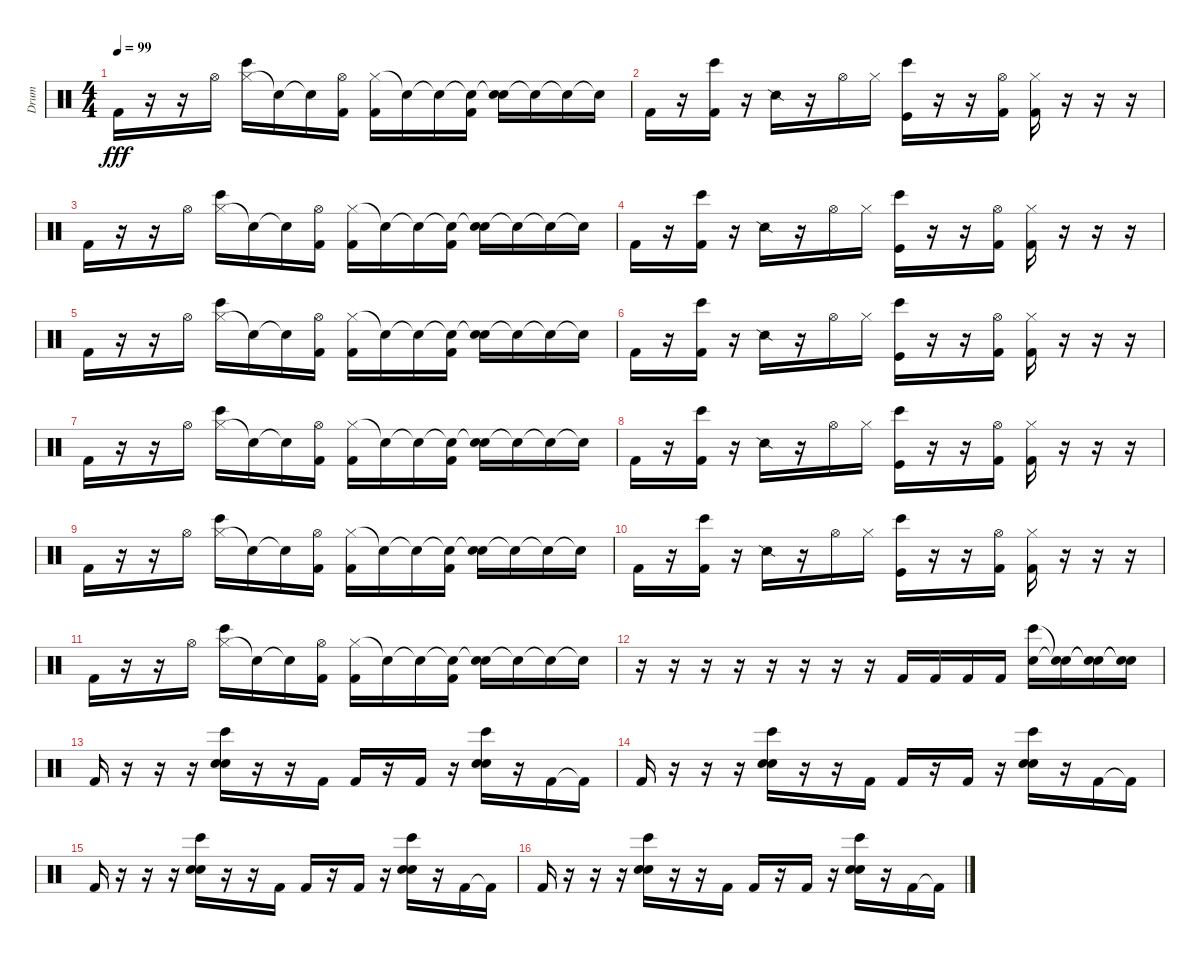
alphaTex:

\track ("Drum" "Drum") {instrument percussion}
\staff {score}
\articulation defaults
\ts (4 4)
\tempo 99
\clef neutral
\ks c "Kick (hit) 2".16{dy fff}
r.16 r.16 "Hi-Hat (open)".16 ("Hi-Hat (closed)" "Bongo High (hit)").16 "Snare (hit)"{t}.16 "Snare (hit)"{t}.16 ("Hi-Hat (open)" "Kick (hit) 2").16 ("Hi-Hat (closed)" "Kick (hit) 2").16 "Snare (hit)"{t}.16 "Snare (hit)"{t}.16 ("Snare (hit)"{t} "Kick (hit) 2").16 ("Snare (hit)"{t} "Hand Clap (hit)").16 "Snare (hit)"{t}.16 "Snare (hit)"{t}.16 "Snare (hit)"{t}.16 |
"Kick (hit) 2".16 r.16 ("Bongo High (hit)" "Kick (hit) 2").16 r.16 "Snare (side stick) 2".16 r.16 "Hi-Hat (open)".16 "Hi-Hat (closed)".16 ("Bongo High (hit)" "Kick (hit)").16 r.16 r.16 ("Hi-Hat (open)" "Kick (hit) 2").16 ("Hi-Hat (closed)" "Kick (hit) 2").16 r.16 r.16 r.16 |
"Kick (hit) 2".16 r.16 r.16 "Hi-Hat (open)".16 ("Hi-Hat (closed)" "Bongo High (hit)").16 "Snare (hit)"{t}.16 "Snare (hit)"{t}.16 ("Hi-Hat (open)" "Kick (hit) 2").16 ("Hi-Hat (closed)" "Kick (hit) 2").16 "Snare (hit)"{t}.16 "Snare (hit)"{t}.16 ("Snare (hit)"{t} "Kick (hit) 2").16 ("Snare (hit)"{t} "Hand Clap (hit)").16 "Snare (hit)"{t}.16 "Snare (hit)"{t}.16 "Snare (hit)"{t}.16 |
"Kick (hit) 2".16 r.16 ("Bongo High (hit)" "Kick (hit) 2").16 r.16 "Snare (side stick) 2".16 r.16 "Hi-Hat (open)".16 "Hi-Hat (closed)".16 ("Bongo High (hit)" "Kick (hit)").16 r.16 r.16 ("Hi-Hat (open)" "Kick (hit) 2").16 ("Hi-Hat (closed)" "Kick (hit) 2").16 r.16 r.16 r.16 |
"Kick (hit) 2".16 r.16 r.16 "Hi-Hat (open)".16 ("Hi-Hat (closed)" "Bongo High (hit)").16 "Snare (hit)"{t}.16 "Snare (hit)"{t}.16 ("Hi-Hat (open)" "Kick (hit) 2").16 ("Hi-Hat (closed)" "Kick (hit) 2").16 "Snare (hit)"{t}.16 "Snare (hit)"{t}.16 ("Snare (hit)"{t} "Kick (hit) 2").16 ("Snare (hit)"{t} "Hand Clap (hit)").16 "Snare (hit)"{t}.16 "Snare (hit)"{t}.16 "Snare (hit)"{t}.16 |
"Kick (hit) 2".16 r.16 ("Bongo High (hit)" "Kick (hit) 2").16 r.16 "Snare (side stick) 2".16 r.16 "Hi-Hat (open)".16 "Hi-Hat (closed)".16 ("Bongo High (hit)" "Kick (hit)").16 r.16 r.16 ("Hi-Hat (open)" "Kick (hit) 2").16 ("Hi-Hat (closed)" "Kick (hit) 2").16 r.16 r.16 r.16 |
"Kick (hit) 2".16 r.16 r.16 "Hi-Hat (open)".16 ("Hi-Hat (closed)" "Bongo High (hit)").16 "Snare (hit)"{t}.16 "Snare (hit)"{t}.16 ("Hi-Hat (open)" "Kick (hit) 2").16 ("Hi-Hat (closed)" "Kick (hit) 2").16 "Snare (hit)"{t}.16 "Snare (hit)"{t}.16 ("Snare (hit)"{t} "Kick (hit) 2").16 ("Snare (hit)"{t} "Hand Clap (hit)").16 "Snare (hit)"{t}.16 "Snare (hit)"{t}.16 "Snare (hit)"{t}.16 |
"Kick (hit) 2".16 r.16 ("Bongo High (hit)" "Kick (hit) 2").16 r.16 "Snare (side stick) 2".16 r.16 "Hi-Hat (open)".16 "Hi-Hat (closed)".16 ("Bongo High (hit)" "Kick (hit)").16 r.16 r.16 ("Hi-Hat (open)" "Kick (hit) 2").16 ("Hi-Hat (closed)" "Kick (hit) 2").16 r.16 r.16 r.16 |
"Kick (hit) 2".16 r.16 r.16 "Hi-Hat (open)".16 ("Hi-Hat (closed)" "Bongo High (hit)").16 "Snare (hit)"{t}.16 "Snare (hit)"{t}.16 ("Hi-Hat (open)" "Kick (hit) 2").16 ("Hi-Hat (closed)" "Kick (hit) 2").16 "Snare (hit)"{t}.16 "Snare (hit)"{t}.16 ("Snare (hit)"{t} "Kick (hit) 2").16 ("Snare (hit)"{t} "Hand Clap (hit)").16 "Snare (hit)"{t}.16 "Snare (hit)"{t}.16 "Snare (hit)"{t}.16 |
"Kick (hit) 2".16 r.16 ("Bongo High (hit)" "Kick (hit) 2").16 r.16 "Snare (side stick) 2".16 r.16 "Hi-Hat (open)".16 "Hi-Hat (closed)".16 ("Bongo High (hit)" "Kick (hit)").16 r.16 r.16 ("Hi-Hat (open)" "Kick (hit) 2").16 ("Hi-Hat (closed)" "Kick (hit) 2").16 r.16 r.16 r.16 |
"Kick (hit) 2".16 r.16 r.16 "Hi-Hat (open)".16 ("Hi-Hat (closed)" "Bongo High (hit)").16 "Snare (hit)"{t}.16 "Snare (hit)"{t}.16 ("Hi-Hat (open)" "Kick (hit) 2").16 ("Hi-Hat (closed)" "Kick (hit) 2").16 "Snare (hit)"{t}.16 "Snare (hit)"{t}.16 ("Snare (hit)"{t} "Kick (hit) 2").16 ("Snare (hit)"{t} "Hand Clap (hit)").16 "Snare (hit)"{t}.16 "Snare (hit)"{t}.16 "Snare (hit)"{t}.16 |
r.16 r.16 r.16 r.16 r.16 r.16 r.16 r.16 "Kick (hit) 2".16 "Kick (hit) 2".16 "Kick (hit) 2".16 "Kick (hit) 2".16 ("Bongo High (hit)" "Hand Clap (hit)").16 ("Snare (hit)"{t} "Snare (hit)"{t}).16 ("Snare (hit)"{t} "Snare (hit)"{t}).16 ("Snare (hit)"{t} "Snare (hit)"{t}).16 |
"Kick (hit) 2".16 r.16 r.16 r.16 ("Snare (hit) 2" "Hand Clap (hit)" "Bongo High (hit)").16 r.16 r.16 "Kick (hit) 2".16 "Kick (hit) 2".16 r.16 "Kick (hit) 2".16 r.16 ("Snare (hit) 2" "Hand Clap (hit)" "Bongo High (hit)").16 r.16 "Kick (hit) 2".16 "Kick (hit) 2"{t}.16 |
"Kick (hit) 2".16 r.16 r.16 r.16 ("Snare (hit) 2" "Hand Clap (hit)" "Bongo High (hit)").16 r.16 r.16 "Kick (hit) 2".16 "Kick (hit) 2".16 r.16 "Kick (hit) 2".16 r.16 ("Snare (hit) 2" "Hand Clap (hit)" "Bongo High (hit)").16 r.16 "Kick (hit) 2".16 "Kick (hit) 2"{t}.16 |
"Kick (hit) 2".16 r.16 r.16 r.16 ("Snare (hit) 2" "Hand Clap (hit)" "Bongo High (hit)").16 r.16 r.16 "Kick (hit) 2".16 "Kick (hit) 2".16 r.16 "Kick (hit) 2".16 r.16 ("Snare (hit) 2" "Hand Clap (hit)" "Bongo High (hit)").16 r.16 "Kick (hit) 2".16 "Kick (hit) 2"{t}.16 |
"Kick (hit) 2".16 r.16 r.16 r.16 ("Snare (hit) 2" "Hand Clap (hit)" "Bongo High (hit)").16 r.16 r.16 "Kick (hit) 2".16 "Kick (hit) 2".16 r.16 "Kick (hit) 2".16 r.16 ("Snare (hit) 2" "Hand Clap (hit)" "Bongo High (hit)").16 r.16 "Kick (hit) 2".16 "Kick (hit) 2"{t}.16
